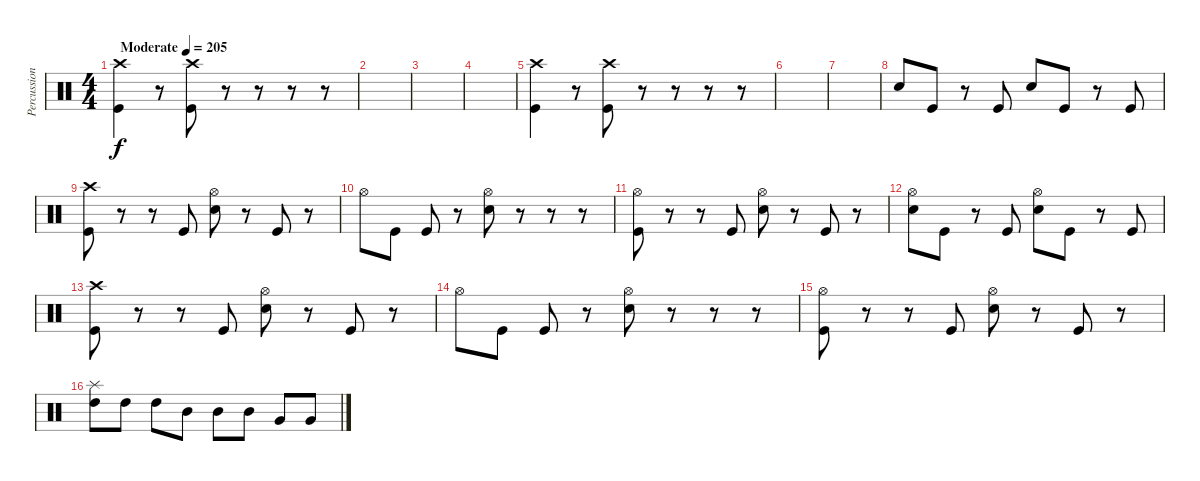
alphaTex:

\track ("Percussion" "Percussion") {instrument percussion}
\staff {score}
\articulation defaults
\ts (4 4)
\tempo (205 "Moderate")
\clef neutral
\ks c
("Crash high (hit)" "Kick (hit)").4{dy f} r.8 ("Kick (hit)" "Crash high (hit)").8 r.8 r.8 r.8 r.8 |
|
|
|
("Crash high (hit)" "Kick (hit)").4 r.8 ("Kick (hit)" "Crash high (hit)").8 r.8 r.8 r.8 r.8 |
|
|
"Snare (hit) 2".8 "Kick (hit)".8 r.8 "Kick (hit)".8 "Snare (hit) 2".8 "Kick (hit)".8 r.8 "Kick (hit)".8 |
("Kick (hit)" "Crash high (hit)").8 r.8 r.8 "Kick (hit)".8 ("Snare (hit) 2" "Hi-Hat (open)").8 r.8 "Kick (hit)".8 r.8 |
"Hi-Hat (open)".8 "Kick (hit)".8 "Kick (hit)".8 r.8 ("Snare (hit) 2" "Hi-Hat (open)").8 r.8 r.8 r.8 |
("Kick (hit)" "Hi-Hat (open)").8 r.8 r.8 "Kick (hit)".8 ("Snare (hit) 2" "Hi-Hat (open)").8 r.8 "Kick (hit)".8 r.8 |
("Snare (hit) 2" "Hi-Hat (open)").8 "Kick (hit)".8 r.8 "Kick (hit)".8 ("Snare (hit) 2" "Hi-Hat (open)").8 "Kick (hit)".8 r.8 "Kick (hit)".8 |
("Kick (hit)" "Crash high (hit)").8 r.8 r.8 "Kick (hit)".8 ("Snare (hit) 2" "Hi-Hat (open)").8 r.8 "Kick (hit)".8 r.8 |
"Hi-Hat (open)".8 "Kick (hit)".8 "Kick (hit)".8 r.8 ("Snare (hit) 2" "Hi-Hat (open)").8 r.8 r.8 r.8 |
("Kick (hit)" "Hi-Hat (open)").8 r.8 r.8 "Kick (hit)".8 ("Snare (hit) 2" "Hi-Hat (open)").8 r.8 "Kick (hit)".8 r.8 |
("High Tom (hit)" "Splash (hit)").8 "High Tom (hit)".8 "High Tom (hit)".8 "Mid Tom (hit)".8 "Mid Tom (hit)".8 "Mid Tom (hit)".8 "Very Low Tom (hit)".8 "Very Low Tom (hit)".8
